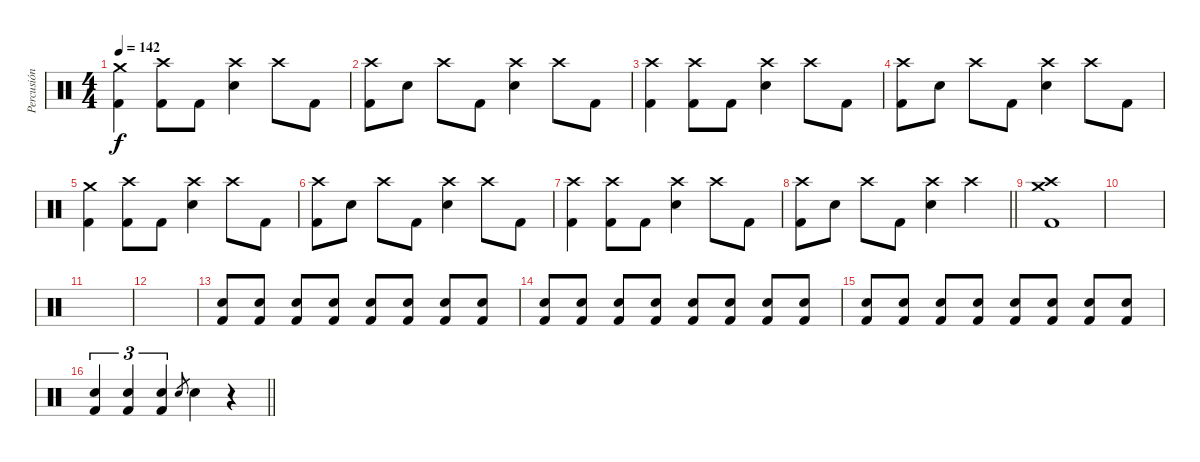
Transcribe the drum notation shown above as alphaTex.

\track ("Percusión" "Percusión") {instrument percussion}
\staff {score}
\articulation defaults
\ts (4 4)
\tempo 142
\clef neutral
\ks c
("Crash medium (hit)" "Kick (hit) 2").4{dy f} ("Crash high (hit)" "Kick (hit) 2").8 "Kick (hit) 2".8 ("Crash high (hit)" "Electric Snare (hit)").4 "Crash high (hit)".8 "Kick (hit) 2".8 |
("Crash high (hit)" "Kick (hit) 2").8 "Electric Snare (hit)".8 "Crash high (hit)".8 "Kick (hit) 2".8 ("Crash high (hit)" "Electric Snare (hit)").4 "Crash high (hit)".8 "Kick (hit) 2".8 |
("Crash high (hit)" "Kick (hit) 2").4 ("Crash high (hit)" "Kick (hit) 2").8 "Kick (hit) 2".8 ("Crash high (hit)" "Electric Snare (hit)").4 "Crash high (hit)".8 "Kick (hit) 2".8 |
("Crash high (hit)" "Kick (hit) 2").8 "Electric Snare (hit)".8 "Crash high (hit)".8 "Kick (hit) 2".8 ("Crash high (hit)" "Electric Snare (hit)").4 "Crash high (hit)".8 "Kick (hit) 2".8 |
("Crash medium (hit)" "Kick (hit) 2").4 ("Crash high (hit)" "Kick (hit) 2").8 "Kick (hit) 2".8 ("Crash high (hit)" "Electric Snare (hit)").4 "Crash high (hit)".8 "Kick (hit) 2".8 |
("Crash high (hit)" "Kick (hit) 2").8 "Electric Snare (hit)".8 "Crash high (hit)".8 "Kick (hit) 2".8 ("Crash high (hit)" "Electric Snare (hit)").4 "Crash high (hit)".8 "Kick (hit) 2".8 |
("Crash high (hit)" "Kick (hit) 2").4 ("Crash high (hit)" "Kick (hit) 2").8 "Kick (hit) 2".8 ("Crash high (hit)" "Electric Snare (hit)").4 "Crash high (hit)".8 "Kick (hit) 2".8 |
\barLineRight lightlight
("Crash high (hit)" "Kick (hit) 2").8 "Electric Snare (hit)".8 "Crash high (hit)".8 "Kick (hit) 2".8 ("Crash high (hit)" "Electric Snare (hit)").4 "Crash high (hit)".4 |
("Crash medium (hit)" "Crash high (hit)" "Kick (hit) 2").1 |
|
|
|
("Electric Snare (hit)" "Kick (hit) 2").8{volume 15} ("Electric Snare (hit)" "Kick (hit) 2").8 ("Electric Snare (hit)" "Kick (hit) 2").8 ("Electric Snare (hit)" "Kick (hit) 2").8 ("Electric Snare (hit)" "Kick (hit) 2").8 ("Electric Snare (hit)" "Kick (hit) 2").8 ("Electric Snare (hit)" "Kick (hit) 2").8 ("Electric Snare (hit)" "Kick (hit) 2").8 |
("Electric Snare (hit)" "Kick (hit) 2").8 ("Electric Snare (hit)" "Kick (hit) 2").8 ("Electric Snare (hit)" "Kick (hit) 2").8 ("Electric Snare (hit)" "Kick (hit) 2").8 ("Electric Snare (hit)" "Kick (hit) 2").8 ("Electric Snare (hit)" "Kick (hit) 2").8 ("Electric Snare (hit)" "Kick (hit) 2").8 ("Electric Snare (hit)" "Kick (hit) 2").8 |
("Electric Snare (hit)" "Kick (hit) 2").8 ("Electric Snare (hit)" "Kick (hit) 2").8 ("Electric Snare (hit)" "Kick (hit) 2").8 ("Electric Snare (hit)" "Kick (hit) 2").8 ("Electric Snare (hit)" "Kick (hit) 2").8 ("Electric Snare (hit)" "Kick (hit) 2").8 ("Electric Snare (hit)" "Kick (hit) 2").8 ("Electric Snare (hit)" "Kick (hit) 2").8 |
\barLineRight lightlight
("Electric Snare (hit)" "Kick (hit) 2").4{tu (3 2)} ("Electric Snare (hit)" "Kick (hit) 2").4{tu (3 2)} ("Electric Snare (hit)" "Kick (hit) 2").4{tu (3 2)} "Electric Snare (hit)".8{gr} "Electric Snare (hit)".4 r.4
